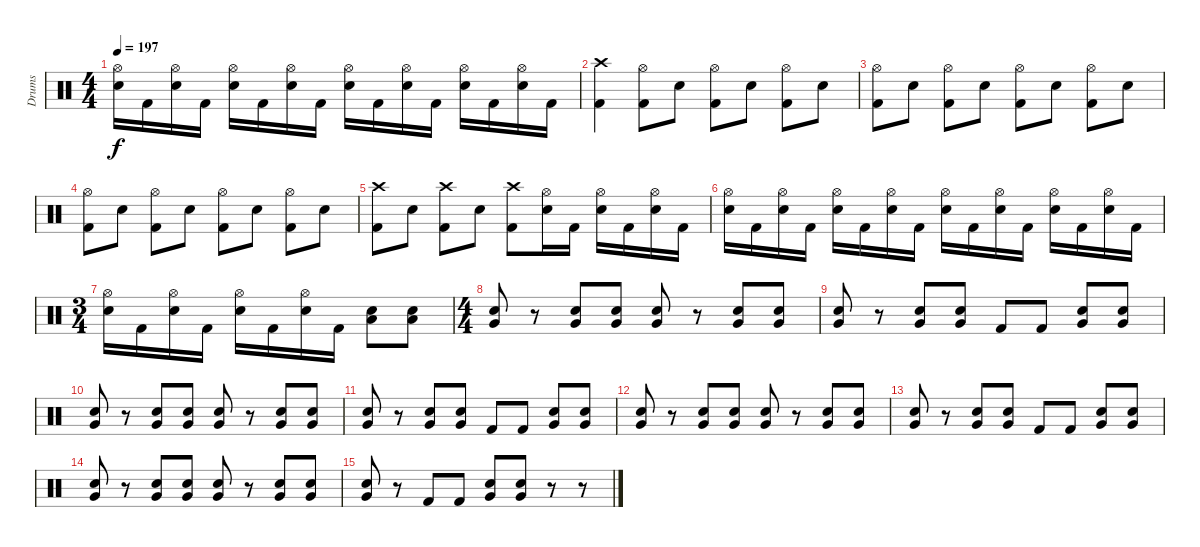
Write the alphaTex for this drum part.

\track ("Drums" "Drums") {instrument percussion}
\staff {score}
\articulation defaults
\ts (4 4)
\tempo 197
\clef neutral
\ks c
("Hi-Hat (open)" "Electric Snare (hit)").16{dy f} "Kick (hit) 2".16 ("Hi-Hat (open)" "Electric Snare (hit)").16 "Kick (hit) 2".16 ("Hi-Hat (open)" "Electric Snare (hit)").16 "Kick (hit) 2".16 ("Hi-Hat (open)" "Electric Snare (hit)").16 "Kick (hit) 2".16 ("Hi-Hat (open)" "Electric Snare (hit)").16 "Kick (hit) 2".16 ("Hi-Hat (open)" "Electric Snare (hit)").16 "Kick (hit) 2".16 ("Hi-Hat (open)" "Electric Snare (hit)").16 "Kick (hit) 2".16 ("Hi-Hat (open)" "Electric Snare (hit)").16 "Kick (hit) 2".16 |
("Crash high (hit)" "Kick (hit) 2").4 ("Hi-Hat (open)" "Kick (hit) 2").8 "Electric Snare (hit)".8 ("Hi-Hat (open)" "Kick (hit) 2").8 "Electric Snare (hit)".8 ("Hi-Hat (open)" "Kick (hit) 2").8 "Electric Snare (hit)".8 |
("Hi-Hat (open)" "Kick (hit) 2").8 "Electric Snare (hit)".8 ("Hi-Hat (open)" "Kick (hit) 2").8 "Electric Snare (hit)".8 ("Hi-Hat (open)" "Kick (hit) 2").8 "Electric Snare (hit)".8 ("Hi-Hat (open)" "Kick (hit) 2").8 "Electric Snare (hit)".8 |
("Hi-Hat (open)" "Kick (hit) 2").8 "Electric Snare (hit)".8 ("Hi-Hat (open)" "Kick (hit) 2").8 "Electric Snare (hit)".8 ("Hi-Hat (open)" "Kick (hit) 2").8 "Electric Snare (hit)".8 ("Hi-Hat (open)" "Kick (hit) 2").8 "Electric Snare (hit)".8 |
("Crash high (hit)" "Kick (hit) 2").8 "Electric Snare (hit)".8 ("Crash high (hit)" "Kick (hit) 2").8 "Electric Snare (hit)".8 ("Crash high (hit)" "Kick (hit) 2").8 ("Hi-Hat (open)" "Electric Snare (hit)").16 "Kick (hit) 2".16 ("Hi-Hat (open)" "Electric Snare (hit)").16 "Kick (hit) 2".16 ("Hi-Hat (open)" "Electric Snare (hit)").16 "Kick (hit) 2".16 |
("Hi-Hat (open)" "Electric Snare (hit)").16 "Kick (hit) 2".16 ("Hi-Hat (open)" "Electric Snare (hit)").16 "Kick (hit) 2".16 ("Hi-Hat (open)" "Electric Snare (hit)").16 "Kick (hit) 2".16 ("Hi-Hat (open)" "Electric Snare (hit)").16 "Kick (hit) 2".16 ("Hi-Hat (open)" "Electric Snare (hit)").16 "Kick (hit) 2".16 ("Hi-Hat (open)" "Electric Snare (hit)").16 "Kick (hit) 2".16 ("Hi-Hat (open)" "Electric Snare (hit)").16 "Kick (hit) 2".16 ("Hi-Hat (open)" "Electric Snare (hit)").16 "Kick (hit) 2".16 |
\ts (3 4)
("Hi-Hat (open)" "Electric Snare (hit)").16 "Kick (hit) 2".16 ("Hi-Hat (open)" "Electric Snare (hit)").16 "Kick (hit) 2".16 ("Hi-Hat (open)" "Electric Snare (hit)").16 "Kick (hit) 2".16 ("Hi-Hat (open)" "Electric Snare (hit)").16 "Kick (hit) 2".16 ("Low Tom (hit)" "Electric Snare (hit)").8 ("Low Tom (hit)" "Electric Snare (hit)").8 |
\ts (4 4)
("Very Low Tom (hit)" "Electric Snare (hit)").8 r.8 ("Very Low Tom (hit)" "Electric Snare (hit)").8 ("Very Low Tom (hit)" "Electric Snare (hit)").8 ("Very Low Tom (hit)" "Electric Snare (hit)").8 r.8 ("Very Low Tom (hit)" "Electric Snare (hit)").8 ("Very Low Tom (hit)" "Electric Snare (hit)").8 |
("Very Low Tom (hit)" "Electric Snare (hit)").8 r.8 ("Very Low Tom (hit)" "Electric Snare (hit)").8 ("Very Low Tom (hit)" "Electric Snare (hit)").8 "Kick (hit) 2".8 "Kick (hit) 2".8 ("Very Low Tom (hit)" "Electric Snare (hit)").8 ("Very Low Tom (hit)" "Electric Snare (hit)").8 |
("Very Low Tom (hit)" "Electric Snare (hit)").8 r.8 ("Very Low Tom (hit)" "Electric Snare (hit)").8 ("Very Low Tom (hit)" "Electric Snare (hit)").8 ("Very Low Tom (hit)" "Electric Snare (hit)").8 r.8 ("Very Low Tom (hit)" "Electric Snare (hit)").8 ("Very Low Tom (hit)" "Electric Snare (hit)").8 |
("Very Low Tom (hit)" "Electric Snare (hit)").8 r.8 ("Very Low Tom (hit)" "Electric Snare (hit)").8 ("Very Low Tom (hit)" "Electric Snare (hit)").8 "Kick (hit) 2".8 "Kick (hit) 2".8 ("Very Low Tom (hit)" "Electric Snare (hit)").8 ("Very Low Tom (hit)" "Electric Snare (hit)").8 |
("Very Low Tom (hit)" "Electric Snare (hit)").8 r.8 ("Very Low Tom (hit)" "Electric Snare (hit)").8 ("Very Low Tom (hit)" "Electric Snare (hit)").8 ("Very Low Tom (hit)" "Electric Snare (hit)").8 r.8 ("Very Low Tom (hit)" "Electric Snare (hit)").8 ("Very Low Tom (hit)" "Electric Snare (hit)").8 |
("Very Low Tom (hit)" "Electric Snare (hit)").8 r.8 ("Very Low Tom (hit)" "Electric Snare (hit)").8 ("Very Low Tom (hit)" "Electric Snare (hit)").8 "Kick (hit) 2".8 "Kick (hit) 2".8 ("Very Low Tom (hit)" "Electric Snare (hit)").8 ("Very Low Tom (hit)" "Electric Snare (hit)").8 |
("Very Low Tom (hit)" "Electric Snare (hit)").8 r.8 ("Very Low Tom (hit)" "Electric Snare (hit)").8 ("Very Low Tom (hit)" "Electric Snare (hit)").8 ("Very Low Tom (hit)" "Electric Snare (hit)").8 r.8 ("Very Low Tom (hit)" "Electric Snare (hit)").8 ("Very Low Tom (hit)" "Electric Snare (hit)").8 |
("Very Low Tom (hit)" "Electric Snare (hit)").8 r.8 "Kick (hit) 2".8 "Kick (hit) 2".8 ("Very Low Tom (hit)" "Electric Snare (hit)").8 ("Very Low Tom (hit)" "Electric Snare (hit)").8 r.8 r.8
